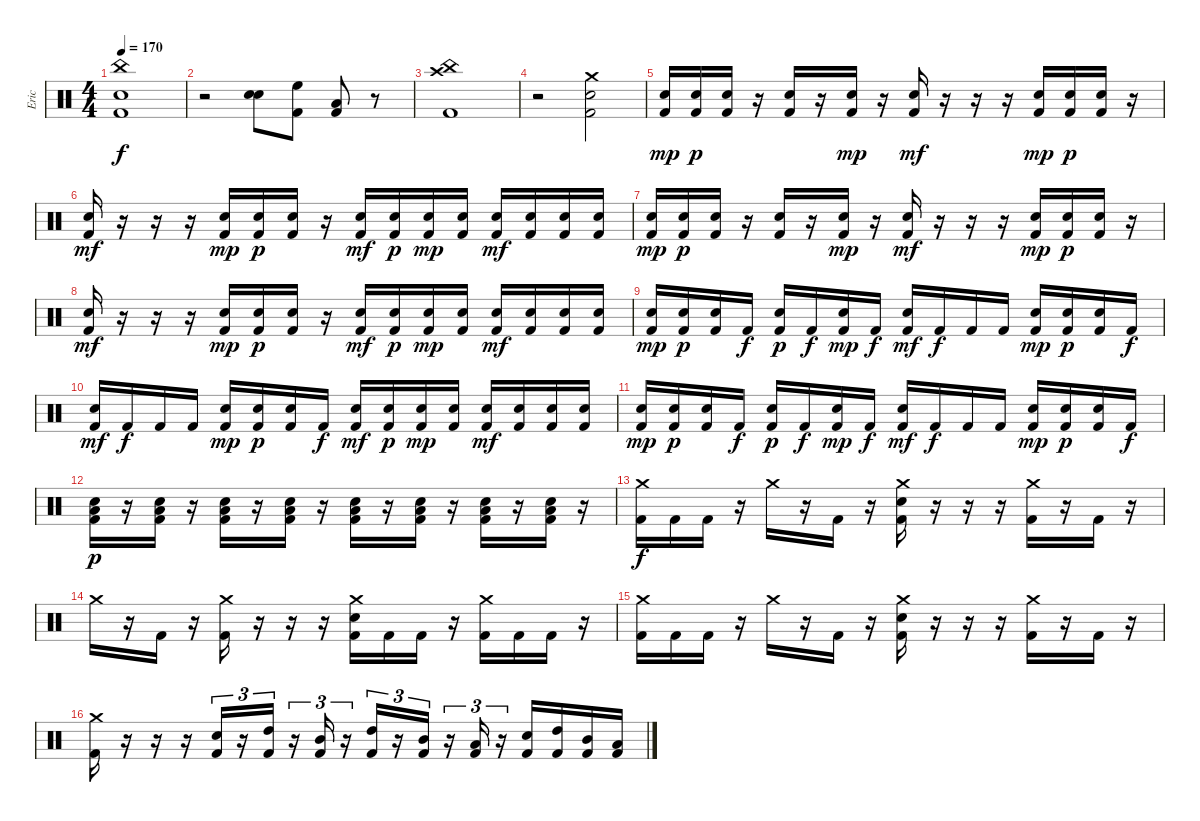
\track ("Eric" "Eric") {instrument percussion}
\staff {score}
\articulation defaults
\ts (4 4)
\tempo 170
\clef neutral
\ks c
("China (hit)" "Electric Snare (hit)" "Kick (hit) 2").1{dy f} |
r.2 ("Electric Snare (hit)" "Electric Snare (hit)").8 ("High Floor Tom (hit)" "Kick (hit) 2").8 ("Low Tom (hit)" "Kick (hit) 2").8 r.8 |
("China (hit)" "Crash high (hit)" "Kick (hit) 2").1 |
r.2 ("Crash medium (hit)" "Electric Snare (hit)" "Kick (hit) 2").2 |
("Kick (hit) 2" "Electric Snare (hit)").16{dy mp} ("Kick (hit) 2" "Electric Snare (hit)").16{dy p} ("Kick (hit) 2" "Electric Snare (hit)").16 r.16 ("Kick (hit) 2" "Electric Snare (hit)").16 r.16 ("Kick (hit) 2" "Electric Snare (hit)").16{dy mp} r.16 ("Kick (hit) 2" "Electric Snare (hit)").16{dy mf} r.16 r.16 r.16 ("Kick (hit) 2" "Electric Snare (hit)").16{dy mp} ("Kick (hit) 2" "Electric Snare (hit)").16{dy p} ("Kick (hit) 2" "Electric Snare (hit)").16 r.16 |
("Kick (hit) 2" "Electric Snare (hit)").16{dy mf} r.16 r.16 r.16 ("Kick (hit) 2" "Electric Snare (hit)").16{dy mp} ("Kick (hit) 2" "Electric Snare (hit)").16{dy p} ("Kick (hit) 2" "Electric Snare (hit)").16 r.16 ("Kick (hit) 2" "Electric Snare (hit)").16{dy mf} ("Kick (hit) 2" "Electric Snare (hit)").16{dy p} ("Kick (hit) 2" "Electric Snare (hit)").16{dy mp} ("Kick (hit) 2" "Electric Snare (hit)").16 ("Kick (hit) 2" "Electric Snare (hit)").16{dy mf} ("Kick (hit) 2" "Electric Snare (hit)").16 ("Kick (hit) 2" "Electric Snare (hit)").16 ("Kick (hit) 2" "Electric Snare (hit)").16 |
("Kick (hit) 2" "Electric Snare (hit)").16{dy mp} ("Kick (hit) 2" "Electric Snare (hit)").16{dy p} ("Kick (hit) 2" "Electric Snare (hit)").16 r.16 ("Kick (hit) 2" "Electric Snare (hit)").16 r.16 ("Kick (hit) 2" "Electric Snare (hit)").16{dy mp} r.16 ("Kick (hit) 2" "Electric Snare (hit)").16{dy mf} r.16 r.16 r.16 ("Kick (hit) 2" "Electric Snare (hit)").16{dy mp} ("Kick (hit) 2" "Electric Snare (hit)").16{dy p} ("Kick (hit) 2" "Electric Snare (hit)").16 r.16 |
("Kick (hit) 2" "Electric Snare (hit)").16{dy mf} r.16 r.16 r.16 ("Kick (hit) 2" "Electric Snare (hit)").16{dy mp} ("Kick (hit) 2" "Electric Snare (hit)").16{dy p} ("Kick (hit) 2" "Electric Snare (hit)").16 r.16 ("Kick (hit) 2" "Electric Snare (hit)").16{dy mf} ("Kick (hit) 2" "Electric Snare (hit)").16{dy p} ("Kick (hit) 2" "Electric Snare (hit)").16{dy mp} ("Kick (hit) 2" "Electric Snare (hit)").16 ("Kick (hit) 2" "Electric Snare (hit)").16{dy mf} ("Kick (hit) 2" "Electric Snare (hit)").16 ("Kick (hit) 2" "Electric Snare (hit)").16 ("Kick (hit) 2" "Electric Snare (hit)").16 |
("Kick (hit) 2" "Electric Snare (hit)").16{dy mp} ("Kick (hit) 2" "Electric Snare (hit)").16{dy p} ("Kick (hit) 2" "Electric Snare (hit)").16 "Kick (hit) 2".16{dy f} ("Kick (hit) 2" "Electric Snare (hit)").16{dy p} "Kick (hit) 2".16{dy f} ("Kick (hit) 2" "Electric Snare (hit)").16{dy mp} "Kick (hit) 2".16{dy f} ("Kick (hit) 2" "Electric Snare (hit)").16{dy mf} "Kick (hit) 2".16{dy f} "Kick (hit) 2".16 "Kick (hit) 2".16 ("Kick (hit) 2" "Electric Snare (hit)").16{dy mp} ("Kick (hit) 2" "Electric Snare (hit)").16{dy p} ("Kick (hit) 2" "Electric Snare (hit)").16 "Kick (hit) 2".16{dy f} |
("Kick (hit) 2" "Electric Snare (hit)").16{dy mf} "Kick (hit) 2".16{dy f} "Kick (hit) 2".16 "Kick (hit) 2".16 ("Kick (hit) 2" "Electric Snare (hit)").16{dy mp} ("Kick (hit) 2" "Electric Snare (hit)").16{dy p} ("Kick (hit) 2" "Electric Snare (hit)").16 "Kick (hit) 2".16{dy f} ("Kick (hit) 2" "Electric Snare (hit)").16{dy mf} ("Kick (hit) 2" "Electric Snare (hit)").16{dy p} ("Kick (hit) 2" "Electric Snare (hit)").16{dy mp} ("Kick (hit) 2" "Electric Snare (hit)").16 ("Kick (hit) 2" "Electric Snare (hit)").16{dy mf} ("Kick (hit) 2" "Electric Snare (hit)").16 ("Kick (hit) 2" "Electric Snare (hit)").16 ("Kick (hit) 2" "Electric Snare (hit)").16 |
("Kick (hit) 2" "Electric Snare (hit)").16{dy mp} ("Kick (hit) 2" "Electric Snare (hit)").16{dy p} ("Kick (hit) 2" "Electric Snare (hit)").16 "Kick (hit) 2".16{dy f} ("Kick (hit) 2" "Electric Snare (hit)").16{dy p} "Kick (hit) 2".16{dy f} ("Kick (hit) 2" "Electric Snare (hit)").16{dy mp} "Kick (hit) 2".16{dy f} ("Kick (hit) 2" "Electric Snare (hit)").16{dy mf} "Kick (hit) 2".16{dy f} "Kick (hit) 2".16 "Kick (hit) 2".16 ("Kick (hit) 2" "Electric Snare (hit)").16{dy mp} ("Kick (hit) 2" "Electric Snare (hit)").16{dy p} ("Kick (hit) 2" "Electric Snare (hit)").16 "Kick (hit) 2".16{dy f} |
("Electric Snare (hit)" "Low Tom (hit)" "Kick (hit) 2").16{dy p} r.16 ("Electric Snare (hit)" "Low Tom (hit)" "Kick (hit) 2").16 r.16 ("Electric Snare (hit)" "Low Tom (hit)" "Kick (hit) 2").16 r.16 ("Electric Snare (hit)" "Low Tom (hit)" "Kick (hit) 2").16 r.16 ("Electric Snare (hit)" "Low Tom (hit)" "Kick (hit) 2").16 r.16 ("Electric Snare (hit)" "Low Tom (hit)" "Kick (hit) 2").16 r.16 ("Electric Snare (hit)" "Low Tom (hit)" "Kick (hit) 2").16 r.16 ("Electric Snare (hit)" "Low Tom (hit)" "Kick (hit) 2").16 r.16 |
("Crash medium (hit)" "Kick (hit) 2").16{dy f} "Kick (hit) 2".16 "Kick (hit) 2".16 r.16 "Crash medium (hit)".16 r.16 "Kick (hit) 2".16 r.16 ("Crash medium (hit)" "Electric Snare (hit)" "Kick (hit) 2").16 r.16 r.16 r.16 ("Crash medium (hit)" "Kick (hit) 2").16 r.16 "Kick (hit) 2".16 r.16 |
"Crash medium (hit)".16 r.16 "Kick (hit) 2".16 r.16 ("Crash medium (hit)" "Kick (hit) 2").16 r.16 r.16 r.16 ("Crash medium (hit)" "Electric Snare (hit)" "Kick (hit) 2").16 "Kick (hit) 2".16 "Kick (hit) 2".16 r.16 ("Crash medium (hit)" "Kick (hit) 2").16 "Kick (hit) 2".16 "Kick (hit) 2".16 r.16 |
("Crash medium (hit)" "Kick (hit) 2").16 "Kick (hit) 2".16 "Kick (hit) 2".16 r.16 "Crash medium (hit)".16 r.16 "Kick (hit) 2".16 r.16 ("Crash medium (hit)" "Electric Snare (hit)" "Kick (hit) 2").16 r.16 r.16 r.16 ("Crash medium (hit)" "Kick (hit) 2").16 r.16 "Kick (hit) 2".16 r.16 |
("Crash medium (hit)" "Kick (hit) 2").16 r.16 r.16 r.16 ("Electric Snare (hit)" "Kick (hit) 2").16{tu (3 2)} r.16{tu (3 2)} ("High Tom (hit)" "Kick (hit) 2").16{tu (3 2)} r.16{tu (3 2)} ("Mid Tom (hit)" "Kick (hit) 2").16{tu (3 2)} r.16{tu (3 2)} ("High Tom (hit)" "Kick (hit) 2").16{tu (3 2)} r.16{tu (3 2)} ("Mid Tom (hit)" "Kick (hit) 2").16{tu (3 2)} r.16{tu (3 2)} ("Low Tom (hit)" "Kick (hit) 2").16{tu (3 2)} r.16{tu (3 2)} ("Electric Snare (hit)" "Kick (hit) 2").16 ("High Tom (hit)" "Kick (hit) 2").16 ("Mid Tom (hit)" "Kick (hit) 2").16 ("Low Tom (hit)" "Kick (hit) 2").16
